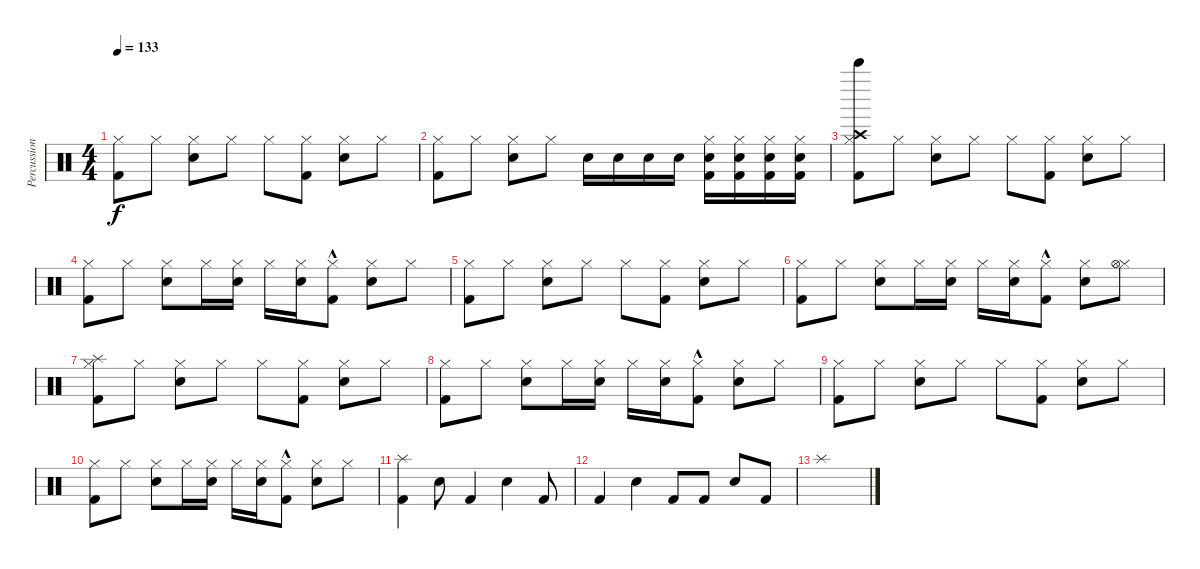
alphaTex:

\track ("Percussion" "Percussion") {instrument percussion}
\staff {score}
\articulation defaults
\ts (4 4)
\tempo 133
\clef neutral
\ks c
("Hi-Hat (closed)" "Kick (hit) 2").8{dy f} "Hi-Hat (closed)".8 ("Hi-Hat (closed)" "Snare (hit) 2").8 "Hi-Hat (closed)".8 "Hi-Hat (closed)".8 ("Hi-Hat (closed)" "Kick (hit) 2").8 ("Hi-Hat (closed)" "Snare (hit) 2").8 "Hi-Hat (closed)".8 |
("Hi-Hat (closed)" "Kick (hit) 2").8 "Hi-Hat (closed)".8 ("Hi-Hat (closed)" "Snare (hit) 2").8 "Hi-Hat (closed)".8 "Snare (hit) 2".16 "Snare (hit) 2".16 "Snare (hit) 2".16 "Snare (hit) 2".16 ("Hi-Hat (closed)" "Snare (hit) 2" "Kick (hit) 2").16 ("Hi-Hat (closed)" "Snare (hit) 2" "Kick (hit) 2").16 ("Hi-Hat (closed)" "Snare (hit) 2" "Kick (hit) 2").16 ("Hi-Hat (closed)" "Snare (hit) 2" "Kick (hit) 2").16 |
("Hi-Hat (closed)" "Bell Tree (hit)" "Crash high (hit)" "Kick (hit) 2").8 "Hi-Hat (closed)".8 ("Hi-Hat (closed)" "Snare (hit) 2").8 "Hi-Hat (closed)".8 "Hi-Hat (closed)".8 ("Hi-Hat (closed)" "Kick (hit) 2").8 ("Hi-Hat (closed)" "Snare (hit) 2").8 "Hi-Hat (closed)".8 |
("Hi-Hat (closed)" "Kick (hit) 2").8 "Hi-Hat (closed)".8 ("Hi-Hat (closed)" "Snare (hit) 2").8 "Hi-Hat (closed)".16 ("Hi-Hat (closed)" "Snare (hit) 2").16 "Hi-Hat (closed)".16 ("Hi-Hat (closed)" "Snare (hit) 2").16 ("Hi-Hat (closed)" "Kick (hit) 2"{hac}).8 ("Hi-Hat (closed)" "Snare (hit) 2").8 "Hi-Hat (closed)".8 |
("Hi-Hat (closed)" "Kick (hit) 2").8 "Hi-Hat (closed)".8 ("Hi-Hat (closed)" "Snare (hit) 2").8 "Hi-Hat (closed)".8 "Hi-Hat (closed)".8 ("Hi-Hat (closed)" "Kick (hit) 2").8 ("Hi-Hat (closed)" "Snare (hit) 2").8 "Hi-Hat (closed)".8 |
("Hi-Hat (closed)" "Kick (hit) 2").8 "Hi-Hat (closed)".8 ("Hi-Hat (closed)" "Snare (hit) 2").8 "Hi-Hat (closed)".16 ("Hi-Hat (closed)" "Snare (hit) 2").16 "Hi-Hat (closed)".16 ("Hi-Hat (closed)" "Snare (hit) 2").16 ("Hi-Hat (closed)" "Kick (hit) 2"{hac}).8 ("Hi-Hat (closed)" "Snare (hit) 2").8 ("Hi-Hat (closed)" "Hi-Hat (open)").8 |
("Hi-Hat (closed)" "Splash (hit)" "Kick (hit) 2").8 "Hi-Hat (closed)".8 ("Hi-Hat (closed)" "Snare (hit) 2").8 "Hi-Hat (closed)".8 "Hi-Hat (closed)".8 ("Hi-Hat (closed)" "Kick (hit) 2").8 ("Hi-Hat (closed)" "Snare (hit) 2").8 "Hi-Hat (closed)".8 |
("Hi-Hat (closed)" "Kick (hit) 2").8 "Hi-Hat (closed)".8 ("Hi-Hat (closed)" "Snare (hit) 2").8 "Hi-Hat (closed)".16 ("Hi-Hat (closed)" "Snare (hit) 2").16 "Hi-Hat (closed)".16 ("Hi-Hat (closed)" "Snare (hit) 2").16 ("Hi-Hat (closed)" "Kick (hit) 2"{hac}).8 ("Hi-Hat (closed)" "Snare (hit) 2").8 "Hi-Hat (closed)".8 |
("Hi-Hat (closed)" "Kick (hit) 2").8 "Hi-Hat (closed)".8 ("Hi-Hat (closed)" "Snare (hit) 2").8 "Hi-Hat (closed)".8 "Hi-Hat (closed)".8 ("Hi-Hat (closed)" "Kick (hit) 2").8 ("Hi-Hat (closed)" "Snare (hit) 2").8 "Hi-Hat (closed)".8 |
("Hi-Hat (closed)" "Kick (hit) 2").8 "Hi-Hat (closed)".8 ("Hi-Hat (closed)" "Snare (hit) 2").8 "Hi-Hat (closed)".16 ("Hi-Hat (closed)" "Snare (hit) 2").16 "Hi-Hat (closed)".16 ("Hi-Hat (closed)" "Snare (hit) 2").16 ("Hi-Hat (closed)" "Kick (hit) 2"{hac}).8 ("Hi-Hat (closed)" "Snare (hit) 2").8 "Hi-Hat (closed)".8 |
("Splash (hit)" "Kick (hit) 2").4 "Snare (hit) 2".8 "Kick (hit) 2".4 "Snare (hit) 2".4 "Kick (hit) 2".8 |
"Kick (hit) 2".4 "Snare (hit) 2".4 "Kick (hit) 2".8 "Kick (hit) 2".8 "Snare (hit) 2".8 "Kick (hit) 2".8 |
"Splash (hit)".1
